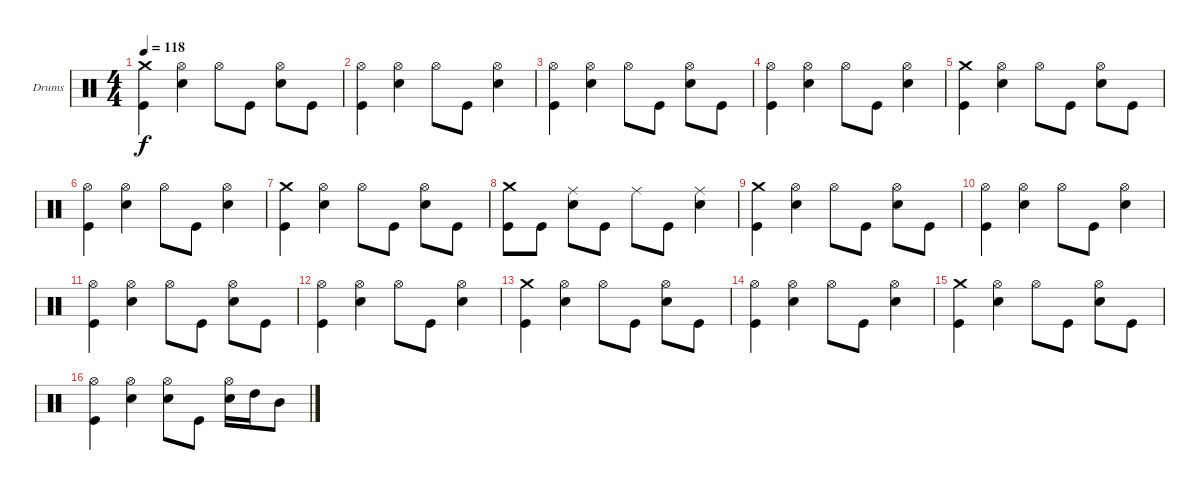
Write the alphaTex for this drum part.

\bracketExtendMode groupsimilarinstruments
\firstSystemTrackNameOrientation horizontal
\otherSystemsTrackNameOrientation horizontal
\track ("Drumkit" "Drums") {instrument percussion}
\staff {score}
\articulation defaults
\ts (4 4)
\tempo 118
\clef neutral
\ks c
("Crash medium (hit)" "Kick (hit)").4{dy f} ("Hi-Hat (open)" "Snare (hit) 2").4 "Hi-Hat (open)".8 "Kick (hit)".8 ("Hi-Hat (open)" "Snare (hit) 2").8 "Kick (hit)".8 |
("Hi-Hat (open)" "Kick (hit)").4 ("Hi-Hat (open)" "Snare (hit) 2").4 "Hi-Hat (open)".8 "Kick (hit)".8 ("Hi-Hat (open)" "Snare (hit) 2").4 |
("Hi-Hat (open)" "Kick (hit)").4 ("Hi-Hat (open)" "Snare (hit) 2").4 "Hi-Hat (open)".8 "Kick (hit)".8 ("Hi-Hat (open)" "Snare (hit) 2").8 "Kick (hit)".8 |
("Hi-Hat (open)" "Kick (hit)").4 ("Hi-Hat (open)" "Snare (hit) 2").4 "Hi-Hat (open)".8 "Kick (hit)".8 ("Hi-Hat (open)" "Snare (hit) 2").4 |
("Crash medium (hit)" "Kick (hit)").4 ("Hi-Hat (open)" "Snare (hit) 2").4 "Hi-Hat (open)".8 "Kick (hit)".8 ("Hi-Hat (open)" "Snare (hit) 2").8 "Kick (hit)".8 |
("Hi-Hat (open)" "Kick (hit)").4 ("Hi-Hat (open)" "Snare (hit) 2").4 "Hi-Hat (open)".8 "Kick (hit)".8 ("Hi-Hat (open)" "Snare (hit) 2").4 |
("Crash medium (hit)" "Kick (hit)").4 ("Hi-Hat (open)" "Snare (hit) 2").4 "Hi-Hat (open)".8 "Kick (hit)".8 ("Hi-Hat (open)" "Snare (hit) 2").8 "Kick (hit)".8 |
("Crash medium (hit)" "Kick (hit)").8 "Kick (hit)".8 ("Ride (middle)" "Snare (hit) 2").8 "Kick (hit)".8 "Ride (middle)".8 "Kick (hit)".8 ("Ride (middle)" "Snare (hit) 2").4 |
("Crash medium (hit)" "Kick (hit)").4 ("Hi-Hat (open)" "Snare (hit) 2").4 "Hi-Hat (open)".8 "Kick (hit)".8 ("Hi-Hat (open)" "Snare (hit) 2").8 "Kick (hit)".8 |
("Hi-Hat (open)" "Kick (hit)").4 ("Hi-Hat (open)" "Snare (hit) 2").4 "Hi-Hat (open)".8 "Kick (hit)".8 ("Hi-Hat (open)" "Snare (hit) 2").4 |
("Hi-Hat (open)" "Kick (hit)").4 ("Hi-Hat (open)" "Snare (hit) 2").4 "Hi-Hat (open)".8 "Kick (hit)".8 ("Hi-Hat (open)" "Snare (hit) 2").8 "Kick (hit)".8 |
("Hi-Hat (open)" "Kick (hit)").4 ("Hi-Hat (open)" "Snare (hit) 2").4 "Hi-Hat (open)".8 "Kick (hit)".8 ("Hi-Hat (open)" "Snare (hit) 2").4 |
("Crash medium (hit)" "Kick (hit)").4 ("Hi-Hat (open)" "Snare (hit) 2").4 "Hi-Hat (open)".8 "Kick (hit)".8 ("Hi-Hat (open)" "Snare (hit) 2").8 "Kick (hit)".8 |
("Hi-Hat (open)" "Kick (hit)").4 ("Hi-Hat (open)" "Snare (hit) 2").4 "Hi-Hat (open)".8 "Kick (hit)".8 ("Hi-Hat (open)" "Snare (hit) 2").4 |
("Crash medium (hit)" "Kick (hit)").4 ("Hi-Hat (open)" "Snare (hit) 2").4 "Hi-Hat (open)".8 "Kick (hit)".8 ("Hi-Hat (open)" "Snare (hit) 2").8 "Kick (hit)".8 |
("Hi-Hat (open)" "Kick (hit)").4 ("Hi-Hat (open)" "Snare (hit) 2").4 ("Hi-Hat (open)" "Snare (hit) 2").8 "Kick (hit)".8 ("Hi-Hat (open)" "Snare (hit) 2").16 "High Tom (hit)".16 "Mid Tom (hit)".8
